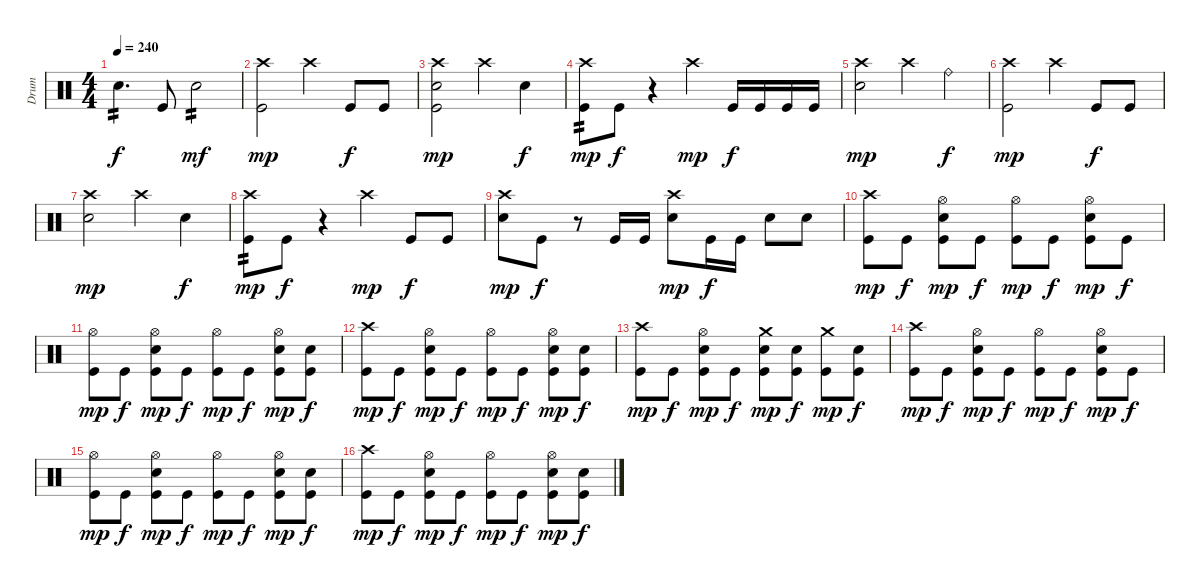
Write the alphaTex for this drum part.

\track ("Drum" "Drum") {instrument percussion}
\staff {score}
\articulation defaults
\ts (4 4)
\tempo 240
\clef neutral
\ks c "Electric Snare (hit)".4{d tp 2 dy f} "Kick (hit)".8 "Electric Snare (hit)".2{tp 2 dy mf}
|
("Crash high (hit)" "Kick (hit)").2{dy mp} "Crash high (hit)".4 "Kick (hit)".8{dy f} "Kick (hit)".8 |
("Crash high (hit)" "Electric Snare (hit)" "Kick (hit)").2{dy mp} "Crash high (hit)".4 "Electric Snare (hit)".4{dy f} |
("Crash high (hit)" "Kick (hit)").8{tp 2 dy mp} "Kick (hit)".8{dy f} r.4 "Crash high (hit)".4{dy mp} "Kick (hit)".16{dy f} "Kick (hit)".16 "Kick (hit)".16 "Kick (hit)".16 |
("Crash high (hit)" "Electric Snare (hit)").2{dy mp} "Crash high (hit)".4 "Ride (bell)".4{dy f} |
("Crash high (hit)" "Kick (hit)").2{dy mp} "Crash high (hit)".4 "Kick (hit)".8{dy f} "Kick (hit)".8 |
("Crash high (hit)" "Electric Snare (hit)").2{dy mp} "Crash high (hit)".4 "Electric Snare (hit)".4{dy f} |
("Crash high (hit)" "Kick (hit)").8{tp 2 dy mp} "Kick (hit)".8{dy f} r.4 "Crash high (hit)".4{dy mp} "Kick (hit)".8{dy f} "Kick (hit)".8 |
("Crash high (hit)" "Electric Snare (hit)").8{dy mp} "Kick (hit)".8{dy f} r.8 "Kick (hit)".16 "Kick (hit)".16 ("Crash high (hit)" "Electric Snare (hit)").8{dy mp} "Kick (hit)".16{dy f} "Kick (hit)".16 "Electric Snare (hit)".8 "Electric Snare (hit)".8 |
("Crash high (hit)" "Kick (hit)").8{dy mp} "Kick (hit)".8{dy f} ("Hi-Hat (open)" "Electric Snare (hit)" "Kick (hit)").8{dy mp} "Kick (hit)".8{dy f} ("Hi-Hat (open)" "Kick (hit)").8{dy mp} "Kick (hit)".8{dy f} ("Hi-Hat (open)" "Electric Snare (hit)" "Kick (hit)").8{dy mp} "Kick (hit)".8{dy f} |
("Hi-Hat (open)" "Kick (hit)").8{dy mp} "Kick (hit)".8{dy f} ("Hi-Hat (open)" "Electric Snare (hit)" "Kick (hit)").8{dy mp} "Kick (hit)".8{dy f} ("Hi-Hat (open)" "Kick (hit)").8{dy mp} "Kick (hit)".8{dy f} ("Hi-Hat (open)" "Electric Snare (hit)" "Kick (hit)").8{dy mp} ("Electric Snare (hit)" "Kick (hit)").8{dy f} |
("Crash high (hit)" "Kick (hit)").8{dy mp} "Kick (hit)".8{dy f} ("Hi-Hat (open)" "Electric Snare (hit)" "Kick (hit)").8{dy mp} "Kick (hit)".8{dy f} ("Hi-Hat (open)" "Kick (hit)").8{dy mp} "Kick (hit)".8{dy f} ("Hi-Hat (open)" "Electric Snare (hit)" "Kick (hit)").8{dy mp} ("Electric Snare (hit)" "Kick (hit)").8{dy f} |
("Crash high (hit)" "Kick (hit)").8{dy mp} "Kick (hit)".8{dy f} ("Hi-Hat (open)" "Electric Snare (hit)" "Kick (hit)").8{dy mp} "Kick (hit)".8{dy f} ("Crash medium (hit)" "Electric Snare (hit)" "Kick (hit)").8{dy mp} ("Electric Snare (hit)" "Kick (hit)").8{dy f} ("Crash medium (hit)" "Kick (hit)").8{dy mp} ("Electric Snare (hit)" "Kick (hit)").8{dy f} |
("Crash high (hit)" "Kick (hit)").8{dy mp} "Kick (hit)".8{dy f} ("Hi-Hat (open)" "Electric Snare (hit)" "Kick (hit)").8{dy mp} "Kick (hit)".8{dy f} ("Hi-Hat (open)" "Kick (hit)").8{dy mp} "Kick (hit)".8{dy f} ("Hi-Hat (open)" "Electric Snare (hit)" "Kick (hit)").8{dy mp} "Kick (hit)".8{dy f} |
("Hi-Hat (open)" "Kick (hit)").8{dy mp} "Kick (hit)".8{dy f} ("Hi-Hat (open)" "Electric Snare (hit)" "Kick (hit)").8{dy mp} "Kick (hit)".8{dy f} ("Hi-Hat (open)" "Kick (hit)").8{dy mp} "Kick (hit)".8{dy f} ("Hi-Hat (open)" "Electric Snare (hit)" "Kick (hit)").8{dy mp} ("Electric Snare (hit)" "Kick (hit)").8{dy f} |
("Crash high (hit)" "Kick (hit)").8{dy mp} "Kick (hit)".8{dy f} ("Hi-Hat (open)" "Electric Snare (hit)" "Kick (hit)").8{dy mp} "Kick (hit)".8{dy f} ("Hi-Hat (open)" "Kick (hit)").8{dy mp} "Kick (hit)".8{dy f} ("Hi-Hat (open)" "Electric Snare (hit)" "Kick (hit)").8{dy mp} ("Electric Snare (hit)" "Kick (hit)").8{dy f}
